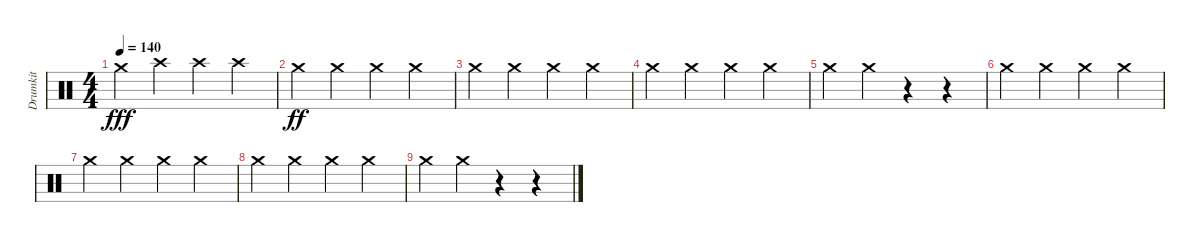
\track ("Drumkit" "Drumkit") {instrument percussion}
\staff {score}
\articulation defaults
\ts (4 4)
\tempo 140
\clef neutral
\ks c "Crash medium (hit)".4{dy fff} "Crash high (hit)".4 "Crash high (hit)".4 "Crash high (hit)".4
|
"Crash medium (hit)".4{dy ff} "Crash medium (hit)".4 "Crash medium (hit)".4 "Crash medium (hit)".4 |
"Crash medium (hit)".4 "Crash medium (hit)".4 "Crash medium (hit)".4 "Crash medium (hit)".4 |
"Crash medium (hit)".4 "Crash medium (hit)".4 "Crash medium (hit)".4 "Crash medium (hit)".4 |
"Crash medium (hit)".4 "Crash medium (hit)".4 r.4 r.4 |
"Crash medium (hit)".4 "Crash medium (hit)".4 "Crash medium (hit)".4 "Crash medium (hit)".4 |
"Crash medium (hit)".4 "Crash medium (hit)".4 "Crash medium (hit)".4 "Crash medium (hit)".4 |
"Crash medium (hit)".4 "Crash medium (hit)".4 "Crash medium (hit)".4 "Crash medium (hit)".4 |
"Crash medium (hit)".4 "Crash medium (hit)".4 r.4 r.4
